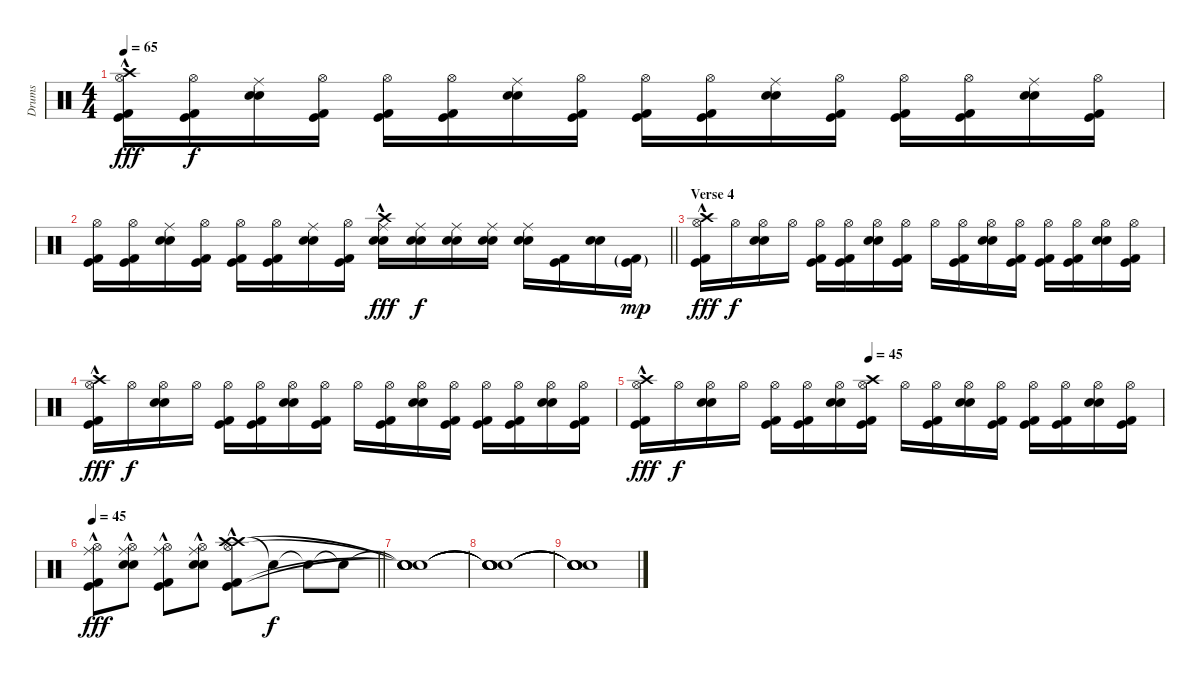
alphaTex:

\track ("Drums" "Drums") {instrument percussion}
\staff {score}
\articulation defaults
\ts (4 4)
\tempo 65
\clef neutral
\ks c
("Crash high (hit)"{hac} "Hi-Hat (open)" "Kick (hit) 2" "Kick (hit)").16{dy fff} ("Hi-Hat (open)" "Kick (hit) 2" "Kick (hit)").16{dy f} ("Ride (middle)" "Electric Snare (hit)" "Snare (hit) 2").16 ("Hi-Hat (open)" "Kick (hit) 2" "Kick (hit)").16 ("Hi-Hat (open)" "Kick (hit) 2" "Kick (hit)").16 ("Hi-Hat (open)" "Kick (hit) 2" "Kick (hit)").16 ("Ride (middle)" "Electric Snare (hit)" "Snare (hit) 2").16 ("Hi-Hat (open)" "Kick (hit) 2" "Kick (hit)").16 ("Hi-Hat (open)" "Kick (hit) 2" "Kick (hit)").16 ("Hi-Hat (open)" "Kick (hit) 2" "Kick (hit)").16 ("Ride (middle)" "Electric Snare (hit)" "Snare (hit) 2").16 ("Hi-Hat (open)" "Kick (hit) 2" "Kick (hit)").16 ("Hi-Hat (open)" "Kick (hit) 2" "Kick (hit)").16 ("Hi-Hat (open)" "Kick (hit) 2" "Kick (hit)").16 ("Ride (middle)" "Electric Snare (hit)" "Snare (hit) 2").16 ("Hi-Hat (open)" "Kick (hit) 2" "Kick (hit)").16 |
\barLineRight lightlight
("Hi-Hat (open)" "Kick (hit) 2" "Kick (hit)").16 ("Hi-Hat (open)" "Kick (hit) 2" "Kick (hit)").16 ("Ride (middle)" "Electric Snare (hit)" "Snare (hit) 2").16 ("Hi-Hat (open)" "Kick (hit) 2" "Kick (hit)").16 ("Hi-Hat (open)" "Kick (hit) 2" "Kick (hit)").16 ("Hi-Hat (open)" "Kick (hit) 2" "Kick (hit)").16 ("Ride (middle)" "Electric Snare (hit)" "Snare (hit) 2").16 ("Hi-Hat (open)" "Kick (hit) 2" "Kick (hit)").16 ("Crash high (hit)"{hac} "Ride (middle)" "Electric Snare (hit)" "Snare (hit) 2").16{dy fff} ("Ride (middle)" "Electric Snare (hit)" "Snare (hit) 2").16{dy f} ("Ride (middle)" "Electric Snare (hit)" "Snare (hit) 2").16 ("Ride (middle)" "Electric Snare (hit)" "Snare (hit) 2").16 ("Ride (middle)" "Electric Snare (hit)" "Snare (hit) 2").16 ("Kick (hit) 2" "Kick (hit)").16 ("Electric Snare (hit)" "Snare (hit) 2").16 ("Kick (hit) 2"{g} "Kick (hit)"{g}).16{dy mp} |
\section ("" "Verse 4")
("Crash high (hit)"{hac} "Hi-Hat (open)" "Kick (hit) 2" "Kick (hit)").16{dy fff} "Hi-Hat (open)".16{dy f} ("Hi-Hat (open)" "Electric Snare (hit)" "Snare (hit) 2").16 "Hi-Hat (open)".16 ("Hi-Hat (open)" "Kick (hit) 2" "Kick (hit)").16 ("Hi-Hat (open)" "Kick (hit) 2" "Kick (hit)").16 ("Hi-Hat (open)" "Electric Snare (hit)" "Snare (hit) 2").16 ("Hi-Hat (open)" "Kick (hit) 2" "Kick (hit)").16 "Hi-Hat (open)".16 ("Hi-Hat (open)" "Kick (hit) 2" "Kick (hit)").16 ("Hi-Hat (open)" "Electric Snare (hit)" "Snare (hit) 2").16 ("Hi-Hat (open)" "Kick (hit) 2" "Kick (hit)").16 ("Hi-Hat (open)" "Kick (hit) 2" "Kick (hit)").16 ("Hi-Hat (open)" "Kick (hit) 2" "Kick (hit)").16 ("Hi-Hat (open)" "Electric Snare (hit)" "Snare (hit) 2").16 ("Hi-Hat (open)" "Kick (hit) 2" "Kick (hit)").16 |
("Crash high (hit)"{hac} "Hi-Hat (open)" "Kick (hit) 2" "Kick (hit)").16{dy fff} "Hi-Hat (open)".16{dy f} ("Hi-Hat (open)" "Electric Snare (hit)" "Snare (hit) 2").16 "Hi-Hat (open)".16 ("Hi-Hat (open)" "Kick (hit) 2" "Kick (hit)").16 ("Hi-Hat (open)" "Kick (hit) 2" "Kick (hit)").16 ("Hi-Hat (open)" "Electric Snare (hit)" "Snare (hit) 2").16 ("Hi-Hat (open)" "Kick (hit) 2" "Kick (hit)").16 "Hi-Hat (open)".16 ("Hi-Hat (open)" "Kick (hit) 2" "Kick (hit)").16 ("Hi-Hat (open)" "Electric Snare (hit)" "Snare (hit) 2").16 ("Hi-Hat (open)" "Kick (hit) 2" "Kick (hit)").16 ("Hi-Hat (open)" "Kick (hit) 2" "Kick (hit)").16 ("Hi-Hat (open)" "Kick (hit) 2" "Kick (hit)").16 ("Hi-Hat (open)" "Electric Snare (hit)" "Snare (hit) 2").16 ("Hi-Hat (open)" "Kick (hit) 2" "Kick (hit)").16 |
\tempo (45 0.4375)
("Crash high (hit)"{hac} "Hi-Hat (open)" "Kick (hit) 2" "Kick (hit)").16{dy fff} "Hi-Hat (open)".16{dy f} ("Hi-Hat (open)" "Electric Snare (hit)" "Snare (hit) 2").16 "Hi-Hat (open)".16 ("Hi-Hat (open)" "Kick (hit) 2" "Kick (hit)").16 ("Hi-Hat (open)" "Kick (hit) 2" "Kick (hit)").16 ("Hi-Hat (open)" "Electric Snare (hit)" "Snare (hit) 2").16 ("Crash high (hit)" "Hi-Hat (open)" "Kick (hit) 2" "Kick (hit)").16 "Hi-Hat (open)".16 ("Hi-Hat (open)" "Kick (hit) 2" "Kick (hit)").16 ("Hi-Hat (open)" "Electric Snare (hit)" "Snare (hit) 2").16 ("Hi-Hat (open)" "Kick (hit) 2" "Kick (hit)").16 ("Hi-Hat (open)" "Kick (hit) 2" "Kick (hit)").16 ("Hi-Hat (open)" "Kick (hit) 2" "Kick (hit)").16 ("Hi-Hat (open)" "Electric Snare (hit)" "Snare (hit) 2").16 ("Hi-Hat (open)" "Kick (hit) 2" "Kick (hit)").16 |
\tempo 45
\barLineRight lightlight
("Ride (middle)"{hac} "Hi-Hat (open)" "Kick (hit) 2" "Kick (hit)").8{dy fff} ("Ride (middle)" "Hi-Hat (open)" "Electric Snare (hit)"{hac} "Snare (hit) 2"{hac}).8 ("Ride (middle)"{hac} "Hi-Hat (open)" "Kick (hit) 2" "Kick (hit)").8 ("Ride (middle)"{hac} "Hi-Hat (open)" "Electric Snare (hit)"{hac} "Snare (hit) 2"{hac}).8 ("Crash high (hit)"{hac} "Hi-Hat (open)"{hac} "Crash high (hit)"{hac} "Kick (hit) 2" "Kick (hit)").8 "Snare (hit)"{t}.8{dy f} "Snare (hit)"{t}.8 "Snare (hit)"{t}.8 |
("Snare (hit)"{t} "Snare (hit)"{t} "Snare (hit)"{t} "Snare (hit)"{t} "Snare (hit)"{t}).1 |
("Snare (hit)"{t} "Snare (hit)"{t} "Snare (hit)"{t} "Snare (hit)"{t} "Snare (hit)"{t}).1 |
("Snare (hit)"{t} "Snare (hit)"{t} "Snare (hit)"{t} "Snare (hit)"{t} "Snare (hit)"{t}).1
